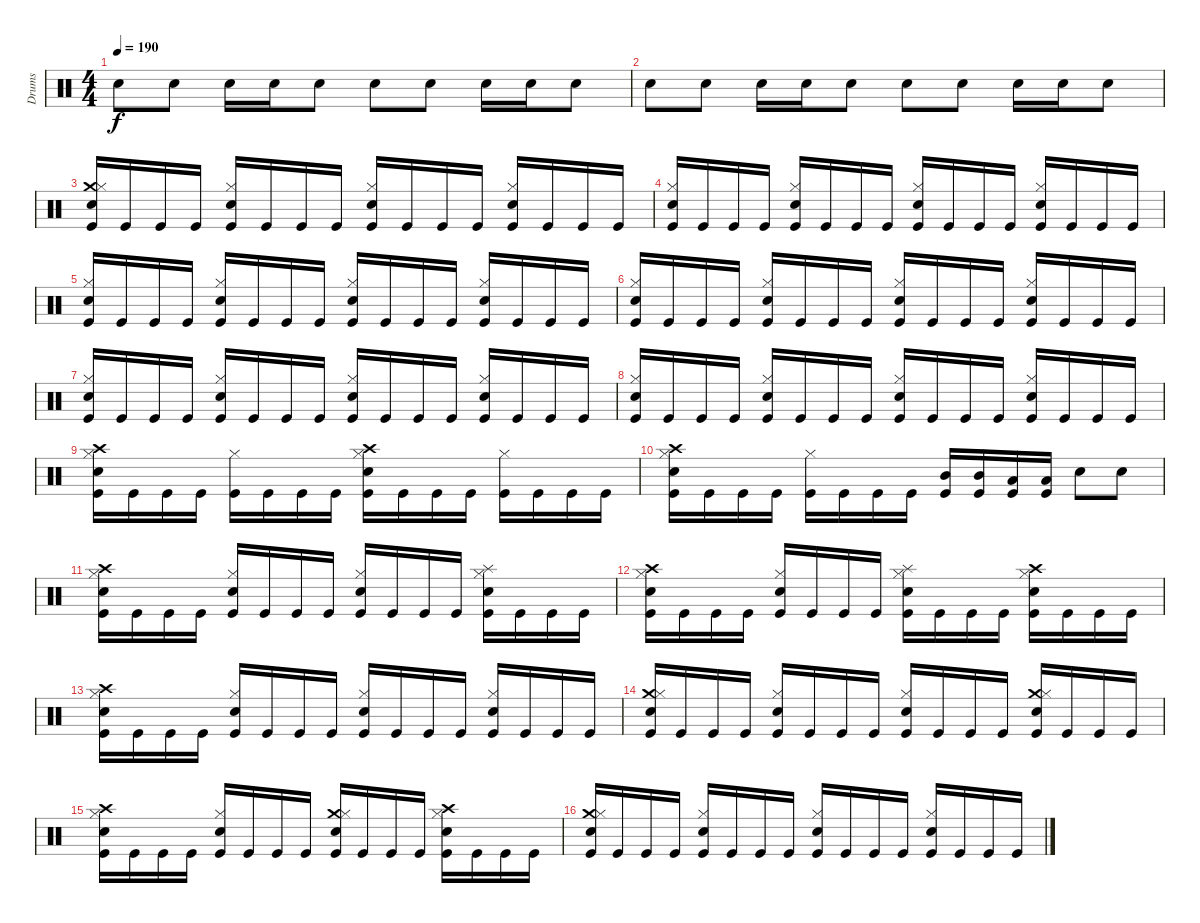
\track ("Drums" "Drums") {instrument percussion}
\staff {score}
\articulation defaults
\ts (4 4)
\tempo 190
\clef neutral
\ks c "Snare (hit) 2".8{dy f} "Snare (hit) 2".8 "Snare (hit) 2".16 "Snare (hit) 2".16 "Snare (hit) 2".8 "Snare (hit) 2".8 "Snare (hit) 2".8 "Snare (hit) 2".16 "Snare (hit) 2".16 "Snare (hit) 2".8
|
"Snare (hit) 2".8 "Snare (hit) 2".8 "Snare (hit) 2".16 "Snare (hit) 2".16 "Snare (hit) 2".8 "Snare (hit) 2".8 "Snare (hit) 2".8 "Snare (hit) 2".16 "Snare (hit) 2".16 "Snare (hit) 2".8 |
("Crash medium (hit)" "Hi-Hat (closed)" "Snare (hit) 2" "Kick (hit)").16 "Kick (hit)".16 "Kick (hit)".16 "Kick (hit)".16 ("Hi-Hat (closed)" "Snare (hit) 2" "Kick (hit)").16 "Kick (hit)".16 "Kick (hit)".16 "Kick (hit)".16 ("Hi-Hat (closed)" "Snare (hit) 2" "Kick (hit)").16 "Kick (hit)".16 "Kick (hit)".16 "Kick (hit)".16 ("Hi-Hat (closed)" "Snare (hit) 2" "Kick (hit)").16 "Kick (hit)".16 "Kick (hit)".16 "Kick (hit)".16 |
("Hi-Hat (closed)" "Snare (hit) 2" "Kick (hit)").16 "Kick (hit)".16 "Kick (hit)".16 "Kick (hit)".16 ("Hi-Hat (closed)" "Snare (hit) 2" "Kick (hit)").16 "Kick (hit)".16 "Kick (hit)".16 "Kick (hit)".16 ("Hi-Hat (closed)" "Snare (hit) 2" "Kick (hit)").16 "Kick (hit)".16 "Kick (hit)".16 "Kick (hit)".16 ("Hi-Hat (closed)" "Snare (hit) 2" "Kick (hit)").16 "Kick (hit)".16 "Kick (hit)".16 "Kick (hit)".16 |
("Hi-Hat (closed)" "Snare (hit) 2" "Kick (hit)").16 "Kick (hit)".16 "Kick (hit)".16 "Kick (hit)".16 ("Hi-Hat (closed)" "Snare (hit) 2" "Kick (hit)").16 "Kick (hit)".16 "Kick (hit)".16 "Kick (hit)".16 ("Hi-Hat (closed)" "Snare (hit) 2" "Kick (hit)").16 "Kick (hit)".16 "Kick (hit)".16 "Kick (hit)".16 ("Hi-Hat (closed)" "Snare (hit) 2" "Kick (hit)").16 "Kick (hit)".16 "Kick (hit)".16 "Kick (hit)".16 |
("Hi-Hat (closed)" "Snare (hit) 2" "Kick (hit)").16 "Kick (hit)".16 "Kick (hit)".16 "Kick (hit)".16 ("Hi-Hat (closed)" "Snare (hit) 2" "Kick (hit)").16 "Kick (hit)".16 "Kick (hit)".16 "Kick (hit)".16 ("Hi-Hat (closed)" "Snare (hit) 2" "Kick (hit)").16 "Kick (hit)".16 "Kick (hit)".16 "Kick (hit)".16 ("Hi-Hat (closed)" "Snare (hit) 2" "Kick (hit)").16 "Kick (hit)".16 "Kick (hit)".16 "Kick (hit)".16 |
("Hi-Hat (closed)" "Snare (hit) 2" "Kick (hit)").16 "Kick (hit)".16 "Kick (hit)".16 "Kick (hit)".16 ("Hi-Hat (closed)" "Snare (hit) 2" "Kick (hit)").16 "Kick (hit)".16 "Kick (hit)".16 "Kick (hit)".16 ("Hi-Hat (closed)" "Snare (hit) 2" "Kick (hit)").16 "Kick (hit)".16 "Kick (hit)".16 "Kick (hit)".16 ("Hi-Hat (closed)" "Snare (hit) 2" "Kick (hit)").16 "Kick (hit)".16 "Kick (hit)".16 "Kick (hit)".16 |
("Hi-Hat (closed)" "Snare (hit) 2" "Kick (hit)").16 "Kick (hit)".16 "Kick (hit)".16 "Kick (hit)".16 ("Hi-Hat (closed)" "Snare (hit) 2" "Kick (hit)").16 "Kick (hit)".16 "Kick (hit)".16 "Kick (hit)".16 ("Hi-Hat (closed)" "Snare (hit) 2" "Kick (hit)").16 "Kick (hit)".16 "Kick (hit)".16 "Kick (hit)".16 ("Hi-Hat (closed)" "Snare (hit) 2" "Kick (hit)").16 "Kick (hit)".16 "Kick (hit)".16 "Kick (hit)".16 |
("Crash high (hit)" "Hi-Hat (closed)" "Snare (hit) 2" "Kick (hit)").16 "Kick (hit)".16 "Kick (hit)".16 "Kick (hit)".16 ("Hi-Hat (closed)" "Kick (hit)").16 "Kick (hit)".16 "Kick (hit)".16 "Kick (hit)".16 ("Crash high (hit)" "Hi-Hat (closed)" "Snare (hit) 2" "Kick (hit)").16 "Kick (hit)".16 "Kick (hit)".16 "Kick (hit)".16 ("Hi-Hat (closed)" "Kick (hit)").16 "Kick (hit)".16 "Kick (hit)".16 "Kick (hit)".16 |
("Crash high (hit)" "Hi-Hat (closed)" "Snare (hit) 2" "Kick (hit)").16 "Kick (hit)".16 "Kick (hit)".16 "Kick (hit)".16 ("Hi-Hat (closed)" "Kick (hit)").16 "Kick (hit)".16 "Kick (hit)".16 "Kick (hit)".16 ("Mid Tom (hit)" "Kick (hit)").16 ("Mid Tom (hit)" "Kick (hit)").16 ("Low Tom (hit)" "Kick (hit)").16 ("Low Tom (hit)" "Kick (hit)").16 "Snare (hit) 2".8 "Snare (hit) 2".8 |
("Crash high (hit)" "Hi-Hat (closed)" "Snare (hit) 2" "Kick (hit)").16 "Kick (hit)".16 "Kick (hit)".16 "Kick (hit)".16 ("Hi-Hat (closed)" "Snare (hit) 2" "Kick (hit)").16 "Kick (hit)".16 "Kick (hit)".16 "Kick (hit)".16 ("Hi-Hat (closed)" "Snare (hit) 2" "Kick (hit)").16 "Kick (hit)".16 "Kick (hit)".16 "Kick (hit)".16 ("Splash (hit)" "Hi-Hat (closed)" "Snare (hit) 2" "Kick (hit)").16 "Kick (hit)".16 "Kick (hit)".16 "Kick (hit)".16 |
("Crash high (hit)" "Hi-Hat (closed)" "Snare (hit) 2" "Kick (hit)").16 "Kick (hit)".16 "Kick (hit)".16 "Kick (hit)".16 ("Hi-Hat (closed)" "Snare (hit) 2" "Kick (hit)").16 "Kick (hit)".16 "Kick (hit)".16 "Kick (hit)".16 ("Splash (hit)" "Hi-Hat (closed)" "Snare (hit) 2" "Kick (hit)").16 "Kick (hit)".16 "Kick (hit)".16 "Kick (hit)".16 ("Crash high (hit)" "Hi-Hat (closed)" "Snare (hit) 2" "Kick (hit)").16 "Kick (hit)".16 "Kick (hit)".16 "Kick (hit)".16 |
("Crash high (hit)" "Hi-Hat (closed)" "Snare (hit) 2" "Kick (hit)").16 "Kick (hit)".16 "Kick (hit)".16 "Kick (hit)".16 ("Hi-Hat (closed)" "Snare (hit) 2" "Kick (hit)").16 "Kick (hit)".16 "Kick (hit)".16 "Kick (hit)".16 ("Hi-Hat (closed)" "Snare (hit) 2" "Kick (hit)").16 "Kick (hit)".16 "Kick (hit)".16 "Kick (hit)".16 ("Hi-Hat (closed)" "Snare (hit) 2" "Kick (hit)").16 "Kick (hit)".16 "Kick (hit)".16 "Kick (hit)".16 |
("Crash medium (hit)" "Hi-Hat (closed)" "Snare (hit) 2" "Kick (hit)").16 "Kick (hit)".16 "Kick (hit)".16 "Kick (hit)".16 ("Hi-Hat (closed)" "Snare (hit) 2" "Kick (hit)").16 "Kick (hit)".16 "Kick (hit)".16 "Kick (hit)".16 ("Hi-Hat (closed)" "Snare (hit) 2" "Kick (hit)").16 "Kick (hit)".16 "Kick (hit)".16 "Kick (hit)".16 ("Crash medium (hit)" "Hi-Hat (closed)" "Snare (hit) 2" "Kick (hit)").16 "Kick (hit)".16 "Kick (hit)".16 "Kick (hit)".16 |
("Crash high (hit)" "Hi-Hat (closed)" "Snare (hit) 2" "Kick (hit)").16 "Kick (hit)".16 "Kick (hit)".16 "Kick (hit)".16 ("Hi-Hat (closed)" "Snare (hit) 2" "Kick (hit)").16 "Kick (hit)".16 "Kick (hit)".16 "Kick (hit)".16 ("Crash medium (hit)" "Hi-Hat (closed)" "Snare (hit) 2" "Kick (hit)").16 "Kick (hit)".16 "Kick (hit)".16 "Kick (hit)".16 ("Crash high (hit)" "Hi-Hat (closed)" "Snare (hit) 2" "Kick (hit)").16 "Kick (hit)".16 "Kick (hit)".16 "Kick (hit)".16 |
("Crash medium (hit)" "Hi-Hat (closed)" "Snare (hit) 2" "Kick (hit)").16 "Kick (hit)".16 "Kick (hit)".16 "Kick (hit)".16 ("Hi-Hat (closed)" "Snare (hit) 2" "Kick (hit)").16 "Kick (hit)".16 "Kick (hit)".16 "Kick (hit)".16 ("Hi-Hat (closed)" "Snare (hit) 2" "Kick (hit)").16 "Kick (hit)".16 "Kick (hit)".16 "Kick (hit)".16 ("Hi-Hat (closed)" "Snare (hit) 2" "Kick (hit)").16 "Kick (hit)".16 "Kick (hit)".16 "Kick (hit)".16
